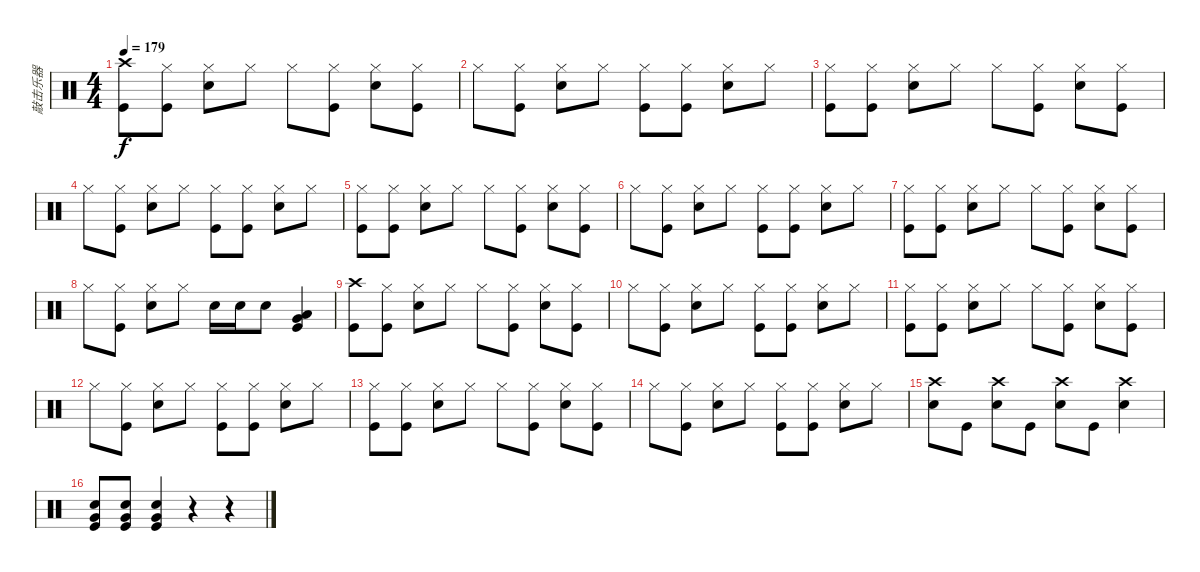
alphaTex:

\track ("敲击乐器" "敲击乐器") {instrument percussion}
\staff {score}
\articulation defaults
\ts (4 4)
\tempo 179
\clef neutral
\ks c
("Crash high (hit)" "Kick (hit)").8{dy f} ("Hi-Hat (closed)" "Kick (hit)").8 ("Hi-Hat (closed)" "Electric Snare (hit)").8 "Hi-Hat (closed)".8 "Hi-Hat (closed)".8 ("Hi-Hat (closed)" "Kick (hit)").8 ("Hi-Hat (closed)" "Electric Snare (hit)").8 ("Hi-Hat (closed)" "Kick (hit)").8 |
"Hi-Hat (closed)".8 ("Hi-Hat (closed)" "Kick (hit)").8 ("Hi-Hat (closed)" "Electric Snare (hit)").8 "Hi-Hat (closed)".8 ("Hi-Hat (closed)" "Kick (hit)").8 ("Hi-Hat (closed)" "Kick (hit)").8 ("Hi-Hat (closed)" "Electric Snare (hit)").8 "Hi-Hat (closed)".8 |
("Hi-Hat (closed)" "Kick (hit)").8 ("Hi-Hat (closed)" "Kick (hit)").8 ("Hi-Hat (closed)" "Electric Snare (hit)").8 "Hi-Hat (closed)".8 "Hi-Hat (closed)".8 ("Hi-Hat (closed)" "Kick (hit)").8 ("Hi-Hat (closed)" "Electric Snare (hit)").8 ("Hi-Hat (closed)" "Kick (hit)").8 |
"Hi-Hat (closed)".8 ("Hi-Hat (closed)" "Kick (hit)").8 ("Hi-Hat (closed)" "Electric Snare (hit)").8 "Hi-Hat (closed)".8 ("Hi-Hat (closed)" "Kick (hit)").8 ("Hi-Hat (closed)" "Kick (hit)").8 ("Hi-Hat (closed)" "Electric Snare (hit)").8 "Hi-Hat (closed)".8 |
("Hi-Hat (closed)" "Kick (hit)").8 ("Hi-Hat (closed)" "Kick (hit)").8 ("Hi-Hat (closed)" "Electric Snare (hit)").8 "Hi-Hat (closed)".8 "Hi-Hat (closed)".8 ("Hi-Hat (closed)" "Kick (hit)").8 ("Hi-Hat (closed)" "Electric Snare (hit)").8 ("Hi-Hat (closed)" "Kick (hit)").8 |
"Hi-Hat (closed)".8 ("Hi-Hat (closed)" "Kick (hit)").8 ("Hi-Hat (closed)" "Electric Snare (hit)").8 "Hi-Hat (closed)".8 ("Hi-Hat (closed)" "Kick (hit)").8 ("Hi-Hat (closed)" "Kick (hit)").8 ("Hi-Hat (closed)" "Electric Snare (hit)").8 "Hi-Hat (closed)".8 |
("Hi-Hat (closed)" "Kick (hit)").8 ("Hi-Hat (closed)" "Kick (hit)").8 ("Hi-Hat (closed)" "Electric Snare (hit)").8 "Hi-Hat (closed)".8 "Hi-Hat (closed)".8 ("Hi-Hat (closed)" "Kick (hit)").8 ("Hi-Hat (closed)" "Electric Snare (hit)").8 ("Hi-Hat (closed)" "Kick (hit)").8 |
"Hi-Hat (closed)".8 ("Hi-Hat (closed)" "Kick (hit)").8 ("Hi-Hat (closed)" "Electric Snare (hit)").8 "Hi-Hat (closed)".8 "Electric Snare (hit)".16 "Electric Snare (hit)".16 "Electric Snare (hit)".8 ("Low Tom (hit)" "Very Low Tom (hit)" "Kick (hit)").4 |
("Crash high (hit)" "Kick (hit)").8 ("Hi-Hat (closed)" "Kick (hit)").8 ("Hi-Hat (closed)" "Electric Snare (hit)").8 "Hi-Hat (closed)".8 "Hi-Hat (closed)".8 ("Hi-Hat (closed)" "Kick (hit)").8 ("Hi-Hat (closed)" "Electric Snare (hit)").8 ("Hi-Hat (closed)" "Kick (hit)").8 |
"Hi-Hat (closed)".8 ("Hi-Hat (closed)" "Kick (hit)").8 ("Hi-Hat (closed)" "Electric Snare (hit)").8 "Hi-Hat (closed)".8 ("Hi-Hat (closed)" "Kick (hit)").8 ("Hi-Hat (closed)" "Kick (hit)").8 ("Hi-Hat (closed)" "Electric Snare (hit)").8 "Hi-Hat (closed)".8 |
("Hi-Hat (closed)" "Kick (hit)").8 ("Hi-Hat (closed)" "Kick (hit)").8 ("Hi-Hat (closed)" "Electric Snare (hit)").8 "Hi-Hat (closed)".8 "Hi-Hat (closed)".8 ("Hi-Hat (closed)" "Kick (hit)").8 ("Hi-Hat (closed)" "Electric Snare (hit)").8 ("Hi-Hat (closed)" "Kick (hit)").8 |
"Hi-Hat (closed)".8 ("Hi-Hat (closed)" "Kick (hit)").8 ("Hi-Hat (closed)" "Electric Snare (hit)").8 "Hi-Hat (closed)".8 ("Hi-Hat (closed)" "Kick (hit)").8 ("Hi-Hat (closed)" "Kick (hit)").8 ("Hi-Hat (closed)" "Electric Snare (hit)").8 "Hi-Hat (closed)".8 |
("Hi-Hat (closed)" "Kick (hit)").8 ("Hi-Hat (closed)" "Kick (hit)").8 ("Hi-Hat (closed)" "Electric Snare (hit)").8 "Hi-Hat (closed)".8 "Hi-Hat (closed)".8 ("Hi-Hat (closed)" "Kick (hit)").8 ("Hi-Hat (closed)" "Electric Snare (hit)").8 ("Hi-Hat (closed)" "Kick (hit)").8 |
"Hi-Hat (closed)".8 ("Hi-Hat (closed)" "Kick (hit)").8 ("Hi-Hat (closed)" "Electric Snare (hit)").8 "Hi-Hat (closed)".8 ("Hi-Hat (closed)" "Kick (hit)").8 ("Hi-Hat (closed)" "Kick (hit)").8 ("Hi-Hat (closed)" "Electric Snare (hit)").8 "Hi-Hat (closed)".8 |
("Crash high (hit)" "Electric Snare (hit)").8 "Kick (hit)".8 ("Crash high (hit)" "Electric Snare (hit)").8 "Kick (hit)".8 ("Crash high (hit)" "Electric Snare (hit)").8 "Kick (hit)".8 ("Crash high (hit)" "Electric Snare (hit)").4 |
("Electric Snare (hit)" "Very Low Tom (hit)" "Kick (hit)").8 ("Electric Snare (hit)" "Very Low Tom (hit)" "Kick (hit)").8 ("Electric Snare (hit)" "Very Low Tom (hit)" "Kick (hit)").4 r.4 r.4
